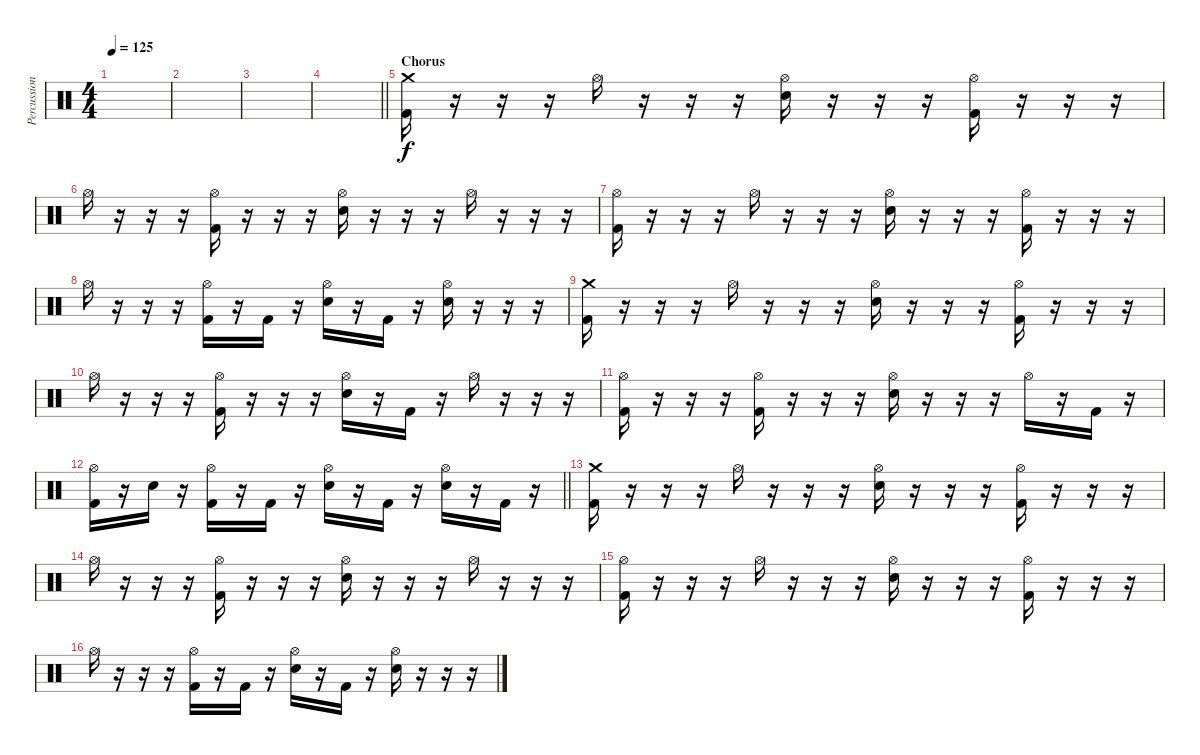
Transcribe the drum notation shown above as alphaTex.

\track ("Percussion" "Percussion") {instrument percussion}
\staff {score}
\articulation defaults
\ts (4 4)
\tempo 125
\clef neutral
\ks c
|
|
|
\barLineRight lightlight
|
\section ("" "Chorus")
("Crash medium (hit)" "Kick (hit) 2").16 r.16 r.16 r.16 "Hi-Hat (open)".16 r.16 r.16 r.16 ("Hi-Hat (open)" "Electric Snare (hit)").16 r.16 r.16 r.16 ("Hi-Hat (open)" "Kick (hit) 2").16 r.16 r.16 r.16 |
"Hi-Hat (open)".16 r.16 r.16 r.16 ("Hi-Hat (open)" "Kick (hit) 2").16 r.16 r.16 r.16 ("Hi-Hat (open)" "Electric Snare (hit)").16 r.16 r.16 r.16 "Hi-Hat (open)".16 r.16 r.16 r.16 |
("Hi-Hat (open)" "Kick (hit) 2").16 r.16 r.16 r.16 "Hi-Hat (open)".16 r.16 r.16 r.16 ("Hi-Hat (open)" "Electric Snare (hit)").16 r.16 r.16 r.16 ("Hi-Hat (open)" "Kick (hit) 2").16 r.16 r.16 r.16 |
"Hi-Hat (open)".16 r.16 r.16 r.16 ("Hi-Hat (open)" "Kick (hit) 2").16 r.16 "Kick (hit) 2".16 r.16 ("Hi-Hat (open)" "Electric Snare (hit)").16 r.16 "Kick (hit) 2".16 r.16 ("Hi-Hat (open)" "Electric Snare (hit)").16 r.16 r.16 r.16 |
("Crash medium (hit)" "Kick (hit) 2").16 r.16 r.16 r.16 "Hi-Hat (open)".16 r.16 r.16 r.16 ("Hi-Hat (open)" "Electric Snare (hit)").16 r.16 r.16 r.16 ("Hi-Hat (open)" "Kick (hit) 2").16 r.16 r.16 r.16 |
"Hi-Hat (open)".16 r.16 r.16 r.16 ("Hi-Hat (open)" "Kick (hit) 2").16 r.16 r.16 r.16 ("Hi-Hat (open)" "Electric Snare (hit)").16 r.16 "Kick (hit) 2".16 r.16 "Hi-Hat (open)".16 r.16 r.16 r.16 |
("Hi-Hat (open)" "Kick (hit) 2").16 r.16 r.16 r.16 ("Hi-Hat (open)" "Kick (hit) 2").16 r.16 r.16 r.16 ("Hi-Hat (open)" "Electric Snare (hit)").16 r.16 r.16 r.16 "Hi-Hat (open)".16 r.16 "Kick (hit) 2".16 r.16 |
\barLineRight lightlight
("Hi-Hat (open)" "Kick (hit) 2").16 r.16 "Electric Snare (hit)".16 r.16 ("Hi-Hat (open)" "Kick (hit) 2").16 r.16 "Kick (hit) 2".16 r.16 ("Hi-Hat (open)" "Electric Snare (hit)").16 r.16 "Kick (hit) 2".16 r.16 ("Hi-Hat (open)" "Electric Snare (hit)").16 r.16 "Kick (hit) 2".16 r.16 |
("Crash medium (hit)" "Kick (hit) 2").16 r.16 r.16 r.16 "Hi-Hat (open)".16 r.16 r.16 r.16 ("Hi-Hat (open)" "Electric Snare (hit)").16 r.16 r.16 r.16 ("Hi-Hat (open)" "Kick (hit) 2").16 r.16 r.16 r.16 |
"Hi-Hat (open)".16 r.16 r.16 r.16 ("Hi-Hat (open)" "Kick (hit) 2").16 r.16 r.16 r.16 ("Hi-Hat (open)" "Electric Snare (hit)").16 r.16 r.16 r.16 "Hi-Hat (open)".16 r.16 r.16 r.16 |
("Hi-Hat (open)" "Kick (hit) 2").16 r.16 r.16 r.16 "Hi-Hat (open)".16 r.16 r.16 r.16 ("Hi-Hat (open)" "Electric Snare (hit)").16 r.16 r.16 r.16 ("Hi-Hat (open)" "Kick (hit) 2").16 r.16 r.16 r.16 |
"Hi-Hat (open)".16 r.16 r.16 r.16 ("Hi-Hat (open)" "Kick (hit) 2").16 r.16 "Kick (hit) 2".16 r.16 ("Hi-Hat (open)" "Electric Snare (hit)").16 r.16 "Kick (hit) 2".16 r.16 ("Hi-Hat (open)" "Electric Snare (hit)").16 r.16 r.16 r.16
